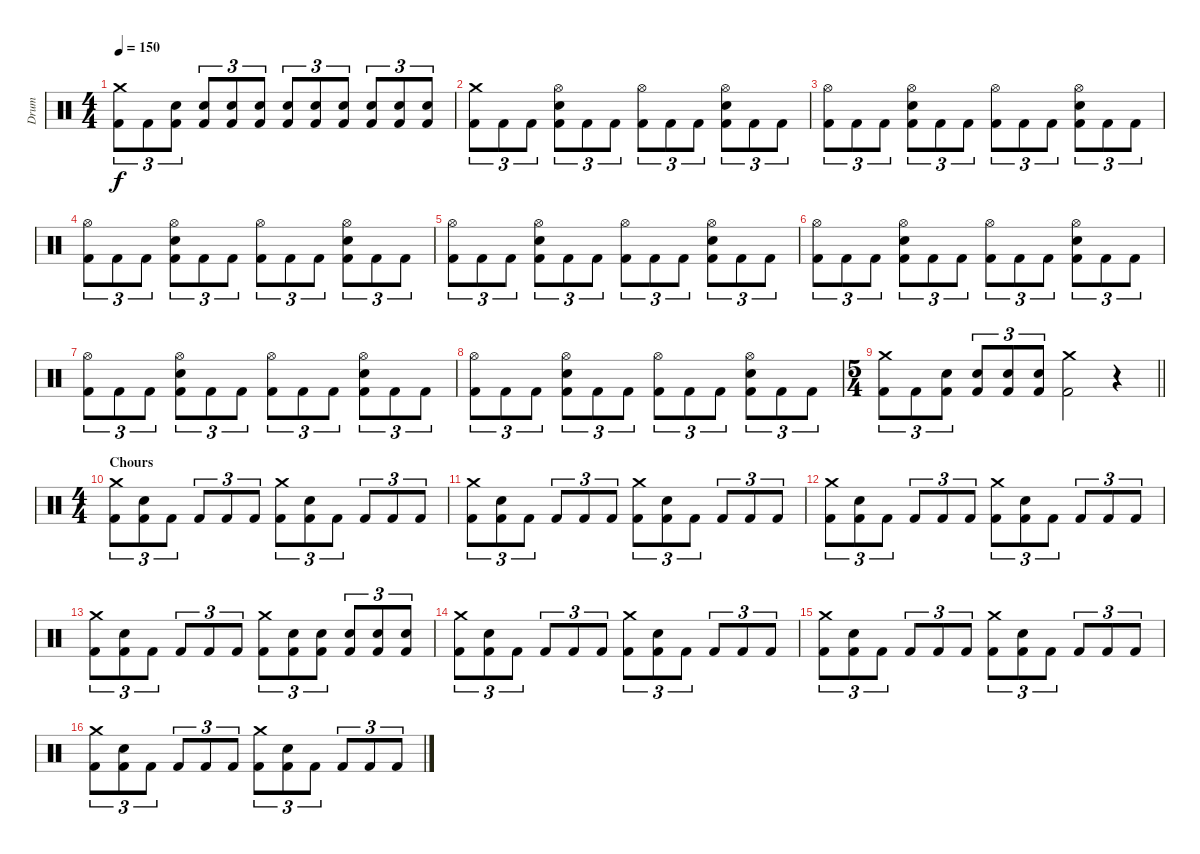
\track ("Drum" "Drum") {instrument percussion}
\staff
\articulation defaults
\ts (4 4)
\tempo 150
\clef neutral
\ks c
("Crash medium (hit)" "Kick (hit) 2").8{tu (3 2) dy f} "Kick (hit) 2".8{tu (3 2)} ("Electric Snare (hit)" "Kick (hit) 2").8{tu (3 2)} ("Electric Snare (hit)" "Kick (hit) 2").8{tu (3 2)} ("Electric Snare (hit)" "Kick (hit) 2").8{tu (3 2)} ("Electric Snare (hit)" "Kick (hit) 2").8{tu (3 2)} ("Electric Snare (hit)" "Kick (hit) 2").8{tu (3 2)} ("Electric Snare (hit)" "Kick (hit) 2").8{tu (3 2)} ("Electric Snare (hit)" "Kick (hit) 2").8{tu (3 2)} ("Electric Snare (hit)" "Kick (hit) 2").8{tu (3 2)} ("Electric Snare (hit)" "Kick (hit) 2").8{tu (3 2)} ("Electric Snare (hit)" "Kick (hit) 2").8{tu (3 2)} |
("Crash medium (hit)" "Kick (hit) 2").8{tu (3 2)} "Kick (hit) 2".8{tu (3 2)} "Kick (hit) 2".8{tu (3 2)} ("Hi-Hat (open)" "Electric Snare (hit)" "Kick (hit) 2").8{tu (3 2)} "Kick (hit) 2".8{tu (3 2)} "Kick (hit) 2".8{tu (3 2)} ("Hi-Hat (open)" "Kick (hit) 2").8{tu (3 2)} "Kick (hit) 2".8{tu (3 2)} "Kick (hit) 2".8{tu (3 2)} ("Hi-Hat (open)" "Electric Snare (hit)" "Kick (hit) 2").8{tu (3 2)} "Kick (hit) 2".8{tu (3 2)} "Kick (hit) 2".8{tu (3 2)} |
("Hi-Hat (open)" "Kick (hit) 2").8{tu (3 2)} "Kick (hit) 2".8{tu (3 2)} "Kick (hit) 2".8{tu (3 2)} ("Hi-Hat (open)" "Electric Snare (hit)" "Kick (hit) 2").8{tu (3 2)} "Kick (hit) 2".8{tu (3 2)} "Kick (hit) 2".8{tu (3 2)} ("Hi-Hat (open)" "Kick (hit) 2").8{tu (3 2)} "Kick (hit) 2".8{tu (3 2)} "Kick (hit) 2".8{tu (3 2)} ("Hi-Hat (open)" "Electric Snare (hit)" "Kick (hit) 2").8{tu (3 2)} "Kick (hit) 2".8{tu (3 2)} "Kick (hit) 2".8{tu (3 2)} |
("Hi-Hat (open)" "Kick (hit) 2").8{tu (3 2)} "Kick (hit) 2".8{tu (3 2)} "Kick (hit) 2".8{tu (3 2)} ("Hi-Hat (open)" "Electric Snare (hit)" "Kick (hit) 2").8{tu (3 2)} "Kick (hit) 2".8{tu (3 2)} "Kick (hit) 2".8{tu (3 2)} ("Hi-Hat (open)" "Kick (hit) 2").8{tu (3 2)} "Kick (hit) 2".8{tu (3 2)} "Kick (hit) 2".8{tu (3 2)} ("Hi-Hat (open)" "Electric Snare (hit)" "Kick (hit) 2").8{tu (3 2)} "Kick (hit) 2".8{tu (3 2)} "Kick (hit) 2".8{tu (3 2)} |
("Hi-Hat (open)" "Kick (hit) 2").8{tu (3 2)} "Kick (hit) 2".8{tu (3 2)} "Kick (hit) 2".8{tu (3 2)} ("Hi-Hat (open)" "Electric Snare (hit)" "Kick (hit) 2").8{tu (3 2)} "Kick (hit) 2".8{tu (3 2)} "Kick (hit) 2".8{tu (3 2)} ("Hi-Hat (open)" "Kick (hit) 2").8{tu (3 2)} "Kick (hit) 2".8{tu (3 2)} "Kick (hit) 2".8{tu (3 2)} ("Hi-Hat (open)" "Electric Snare (hit)" "Kick (hit) 2").8{tu (3 2)} "Kick (hit) 2".8{tu (3 2)} "Kick (hit) 2".8{tu (3 2)} |
("Hi-Hat (open)" "Kick (hit) 2").8{tu (3 2)} "Kick (hit) 2".8{tu (3 2)} "Kick (hit) 2".8{tu (3 2)} ("Hi-Hat (open)" "Electric Snare (hit)" "Kick (hit) 2").8{tu (3 2)} "Kick (hit) 2".8{tu (3 2)} "Kick (hit) 2".8{tu (3 2)} ("Hi-Hat (open)" "Kick (hit) 2").8{tu (3 2)} "Kick (hit) 2".8{tu (3 2)} "Kick (hit) 2".8{tu (3 2)} ("Hi-Hat (open)" "Electric Snare (hit)" "Kick (hit) 2").8{tu (3 2)} "Kick (hit) 2".8{tu (3 2)} "Kick (hit) 2".8{tu (3 2)} |
("Hi-Hat (open)" "Kick (hit) 2").8{tu (3 2)} "Kick (hit) 2".8{tu (3 2)} "Kick (hit) 2".8{tu (3 2)} ("Hi-Hat (open)" "Electric Snare (hit)" "Kick (hit) 2").8{tu (3 2)} "Kick (hit) 2".8{tu (3 2)} "Kick (hit) 2".8{tu (3 2)} ("Hi-Hat (open)" "Kick (hit) 2").8{tu (3 2)} "Kick (hit) 2".8{tu (3 2)} "Kick (hit) 2".8{tu (3 2)} ("Hi-Hat (open)" "Electric Snare (hit)" "Kick (hit) 2").8{tu (3 2)} "Kick (hit) 2".8{tu (3 2)} "Kick (hit) 2".8{tu (3 2)} |
("Hi-Hat (open)" "Kick (hit) 2").8{tu (3 2)} "Kick (hit) 2".8{tu (3 2)} "Kick (hit) 2".8{tu (3 2)} ("Hi-Hat (open)" "Electric Snare (hit)" "Kick (hit) 2").8{tu (3 2)} "Kick (hit) 2".8{tu (3 2)} "Kick (hit) 2".8{tu (3 2)} ("Hi-Hat (open)" "Kick (hit) 2").8{tu (3 2)} "Kick (hit) 2".8{tu (3 2)} "Kick (hit) 2".8{tu (3 2)} ("Hi-Hat (open)" "Electric Snare (hit)" "Kick (hit) 2").8{tu (3 2)} "Kick (hit) 2".8{tu (3 2)} "Kick (hit) 2".8{tu (3 2)} |
\ts (5 4)
\barLineRight lightlight
("Crash medium (hit)" "Kick (hit) 2").8{tu (3 2)} "Kick (hit) 2".8{tu (3 2)} ("Electric Snare (hit)" "Kick (hit) 2").8{tu (3 2)} ("Electric Snare (hit)" "Kick (hit) 2").8{tu (3 2)} ("Electric Snare (hit)" "Kick (hit) 2").8{tu (3 2)} ("Electric Snare (hit)" "Kick (hit) 2").8{tu (3 2)} ("Crash medium (hit)" "Kick (hit) 2").2 r.4 |
\ts (4 4)
\section ("" "Chours")
("Crash medium (hit)" "Kick (hit) 2").8{tu (3 2)} ("Electric Snare (hit)" "Kick (hit) 2").8{tu (3 2)} "Kick (hit) 2".8{tu (3 2)} "Kick (hit) 2".8{tu (3 2)} "Kick (hit) 2".8{tu (3 2)} "Kick (hit) 2".8{tu (3 2)} ("Crash medium (hit)" "Kick (hit) 2").8{tu (3 2)} ("Electric Snare (hit)" "Kick (hit) 2").8{tu (3 2)} "Kick (hit) 2".8{tu (3 2)} "Kick (hit) 2".8{tu (3 2)} "Kick (hit) 2".8{tu (3 2)} "Kick (hit) 2".8{tu (3 2)} |
("Crash medium (hit)" "Kick (hit) 2").8{tu (3 2)} ("Electric Snare (hit)" "Kick (hit) 2").8{tu (3 2)} "Kick (hit) 2".8{tu (3 2)} "Kick (hit) 2".8{tu (3 2)} "Kick (hit) 2".8{tu (3 2)} "Kick (hit) 2".8{tu (3 2)} ("Crash medium (hit)" "Kick (hit) 2").8{tu (3 2)} ("Electric Snare (hit)" "Kick (hit) 2").8{tu (3 2)} "Kick (hit) 2".8{tu (3 2)} "Kick (hit) 2".8{tu (3 2)} "Kick (hit) 2".8{tu (3 2)} "Kick (hit) 2".8{tu (3 2)} |
("Crash medium (hit)" "Kick (hit) 2").8{tu (3 2)} ("Electric Snare (hit)" "Kick (hit) 2").8{tu (3 2)} "Kick (hit) 2".8{tu (3 2)} "Kick (hit) 2".8{tu (3 2)} "Kick (hit) 2".8{tu (3 2)} "Kick (hit) 2".8{tu (3 2)} ("Crash medium (hit)" "Kick (hit) 2").8{tu (3 2)} ("Electric Snare (hit)" "Kick (hit) 2").8{tu (3 2)} "Kick (hit) 2".8{tu (3 2)} "Kick (hit) 2".8{tu (3 2)} "Kick (hit) 2".8{tu (3 2)} "Kick (hit) 2".8{tu (3 2)} |
("Crash medium (hit)" "Kick (hit) 2").8{tu (3 2)} ("Electric Snare (hit)" "Kick (hit) 2").8{tu (3 2)} "Kick (hit) 2".8{tu (3 2)} "Kick (hit) 2".8{tu (3 2)} "Kick (hit) 2".8{tu (3 2)} "Kick (hit) 2".8{tu (3 2)} ("Crash medium (hit)" "Kick (hit) 2").8{tu (3 2)} ("Electric Snare (hit)" "Kick (hit) 2").8{tu (3 2)} ("Electric Snare (hit)" "Kick (hit) 2").8{tu (3 2)} ("Electric Snare (hit)" "Kick (hit) 2").8{tu (3 2)} ("Electric Snare (hit)" "Kick (hit) 2").8{tu (3 2)} ("Electric Snare (hit)" "Kick (hit) 2").8{tu (3 2)} |
("Crash medium (hit)" "Kick (hit) 2").8{tu (3 2)} ("Electric Snare (hit)" "Kick (hit) 2").8{tu (3 2)} "Kick (hit) 2".8{tu (3 2)} "Kick (hit) 2".8{tu (3 2)} "Kick (hit) 2".8{tu (3 2)} "Kick (hit) 2".8{tu (3 2)} ("Crash medium (hit)" "Kick (hit) 2").8{tu (3 2)} ("Electric Snare (hit)" "Kick (hit) 2").8{tu (3 2)} "Kick (hit) 2".8{tu (3 2)} "Kick (hit) 2".8{tu (3 2)} "Kick (hit) 2".8{tu (3 2)} "Kick (hit) 2".8{tu (3 2)} |
("Crash medium (hit)" "Kick (hit) 2").8{tu (3 2)} ("Electric Snare (hit)" "Kick (hit) 2").8{tu (3 2)} "Kick (hit) 2".8{tu (3 2)} "Kick (hit) 2".8{tu (3 2)} "Kick (hit) 2".8{tu (3 2)} "Kick (hit) 2".8{tu (3 2)} ("Crash medium (hit)" "Kick (hit) 2").8{tu (3 2)} ("Electric Snare (hit)" "Kick (hit) 2").8{tu (3 2)} "Kick (hit) 2".8{tu (3 2)} "Kick (hit) 2".8{tu (3 2)} "Kick (hit) 2".8{tu (3 2)} "Kick (hit) 2".8{tu (3 2)} |
("Crash medium (hit)" "Kick (hit) 2").8{tu (3 2)} ("Electric Snare (hit)" "Kick (hit) 2").8{tu (3 2)} "Kick (hit) 2".8{tu (3 2)} "Kick (hit) 2".8{tu (3 2)} "Kick (hit) 2".8{tu (3 2)} "Kick (hit) 2".8{tu (3 2)} ("Crash medium (hit)" "Kick (hit) 2").8{tu (3 2)} ("Electric Snare (hit)" "Kick (hit) 2").8{tu (3 2)} "Kick (hit) 2".8{tu (3 2)} "Kick (hit) 2".8{tu (3 2)} "Kick (hit) 2".8{tu (3 2)} "Kick (hit) 2".8{tu (3 2)}
